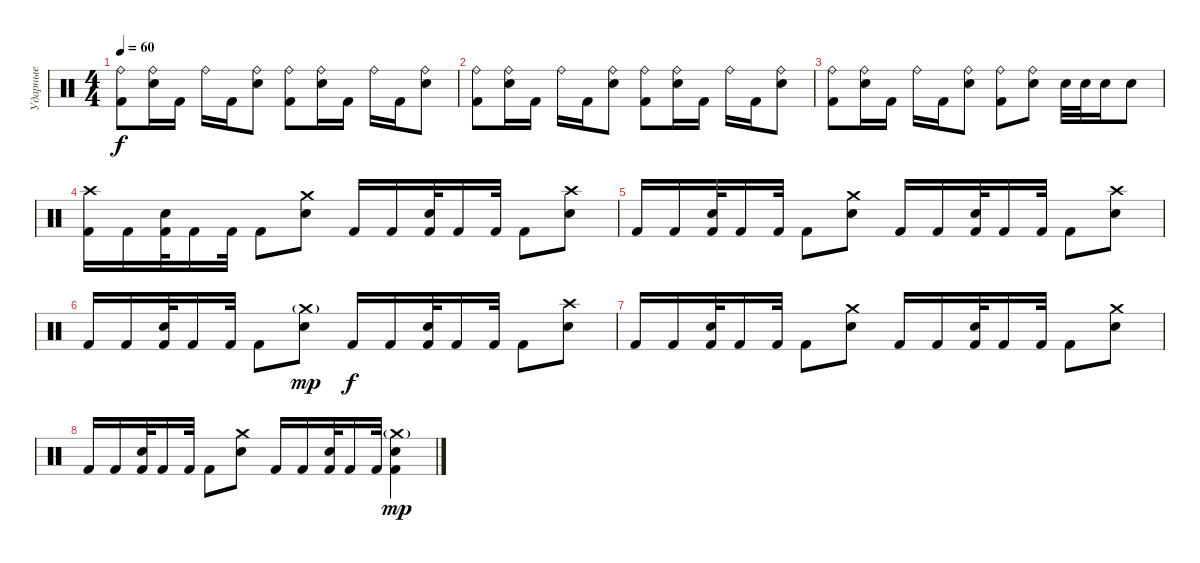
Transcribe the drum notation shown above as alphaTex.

\track ("Ударные" "Ударные") {instrument percussion}
\staff {score}
\articulation defaults
\ts (4 4)
\tempo 60
\clef neutral
\ks c
("Ride (bell)" "Kick (hit) 2").8{dy f} ("Snare (hit) 2" "Ride (bell)").16 "Kick (hit) 2".16 "Ride (bell)".16 "Kick (hit) 2".16 ("Snare (hit) 2" "Ride (bell)").8 ("Ride (bell)" "Kick (hit) 2").8 ("Snare (hit) 2" "Ride (bell)").16 "Kick (hit) 2".16 "Ride (bell)".16 "Kick (hit) 2".16 ("Snare (hit) 2" "Ride (bell)").8 |
("Ride (bell)" "Kick (hit) 2").8 ("Snare (hit) 2" "Ride (bell)").16 "Kick (hit) 2".16 "Ride (bell)".16 "Kick (hit) 2".16 ("Snare (hit) 2" "Ride (bell)").8 ("Ride (bell)" "Kick (hit) 2").8 ("Snare (hit) 2" "Ride (bell)").16 "Kick (hit) 2".16 "Ride (bell)".16 "Kick (hit) 2".16 ("Snare (hit) 2" "Ride (bell)").8 |
("Ride (bell)" "Kick (hit) 2").8 ("Snare (hit) 2" "Ride (bell)").16 "Kick (hit) 2".16 "Ride (bell)".16 "Kick (hit) 2".16 ("Snare (hit) 2" "Ride (bell)").8 ("Ride (bell)" "Kick (hit) 2").8 ("Snare (hit) 2" "Ride (bell)").8 "Snare (hit) 2".32 "Snare (hit) 2".32 "Snare (hit) 2".16 "Snare (hit) 2".8 |
("Crash high (hit)" "Kick (hit) 2").16 "Kick (hit) 2".16 ("Snare (hit) 2" "Kick (hit) 2").32 "Kick (hit) 2".16 "Kick (hit) 2".32 "Kick (hit) 2".8 ("Crash medium (hit)" "Snare (hit) 2").8 "Kick (hit) 2".16 "Kick (hit) 2".16 ("Snare (hit) 2" "Kick (hit) 2").32 "Kick (hit) 2".16 "Kick (hit) 2".32 "Kick (hit) 2".8 ("Crash high (hit)" "Snare (hit) 2").8 |
"Kick (hit) 2".16 "Kick (hit) 2".16 ("Snare (hit) 2" "Kick (hit) 2").32 "Kick (hit) 2".16 "Kick (hit) 2".32 "Kick (hit) 2".8 ("Crash medium (hit)" "Snare (hit) 2").8 "Kick (hit) 2".16 "Kick (hit) 2".16 ("Snare (hit) 2" "Kick (hit) 2").32 "Kick (hit) 2".16 "Kick (hit) 2".32 "Kick (hit) 2".8 ("Crash high (hit)" "Snare (hit) 2").8 |
"Kick (hit) 2".16 "Kick (hit) 2".16 ("Snare (hit) 2" "Kick (hit) 2").32 "Kick (hit) 2".16 "Kick (hit) 2".32 "Kick (hit) 2".8 ("Crash medium (hit)"{g} "Snare (hit) 2").8{dy mp} "Kick (hit) 2".16{dy f} "Kick (hit) 2".16 ("Snare (hit) 2" "Kick (hit) 2").32 "Kick (hit) 2".16 "Kick (hit) 2".32 "Kick (hit) 2".8 ("Crash high (hit)" "Snare (hit) 2").8 |
"Kick (hit) 2".16 "Kick (hit) 2".16 ("Snare (hit) 2" "Kick (hit) 2").32 "Kick (hit) 2".16 "Kick (hit) 2".32 "Kick (hit) 2".8 ("Crash medium (hit)" "Snare (hit) 2").8 "Kick (hit) 2".16 "Kick (hit) 2".16 ("Snare (hit) 2" "Kick (hit) 2").32 "Kick (hit) 2".16 "Kick (hit) 2".32 "Kick (hit) 2".8 ("Crash medium (hit)" "Snare (hit) 2").8 |
"Kick (hit) 2".16 "Kick (hit) 2".16 ("Snare (hit) 2" "Kick (hit) 2").32 "Kick (hit) 2".16 "Kick (hit) 2".32 "Kick (hit) 2".8 ("Crash medium (hit)" "Snare (hit) 2").8 "Kick (hit) 2".16 "Kick (hit) 2".16 ("Snare (hit) 2" "Kick (hit) 2").32 "Kick (hit) 2".16 "Kick (hit) 2".32 ("Crash medium (hit)"{g} "Snare (hit) 2" "Kick (hit) 2").4{dy mp}
